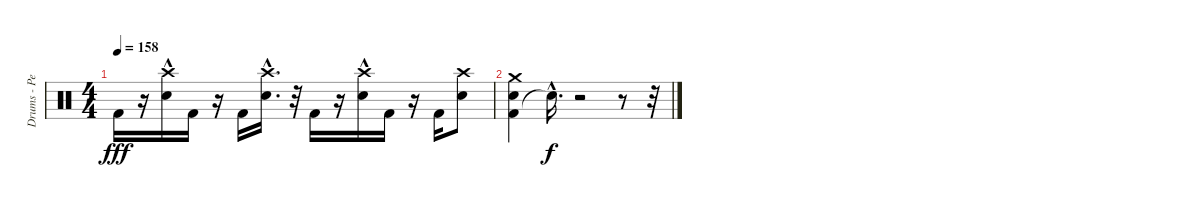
\track ("Drums - Pete Finestone" "Drums - Pe") {instrument percussion}
\staff {score}
\articulation defaults
\ts (4 4)
\tempo 158
\clef neutral
\ks c "Kick (hit) 2".16{dy fff}
r.16 ("Electric Snare (hit)" "Crash high (hit)"{hac}).16 "Kick (hit) 2".16 r.16 "Kick (hit) 2".16 ("Electric Snare (hit)" "Crash high (hit)"{hac}).16{d} r.32 "Kick (hit) 2".16 r.16 ("Electric Snare (hit)" "Crash high (hit)"{hac}).16 "Kick (hit) 2".16 r.16 "Kick (hit) 2".16 ("Electric Snare (hit)" "Crash high (hit)").8 |
("Kick (hit) 2" "Electric Snare (hit)" "Crash medium (hit)").4 "Snare (hit)"{hac t}.16{d dy f} r.2 r.8 r.32
